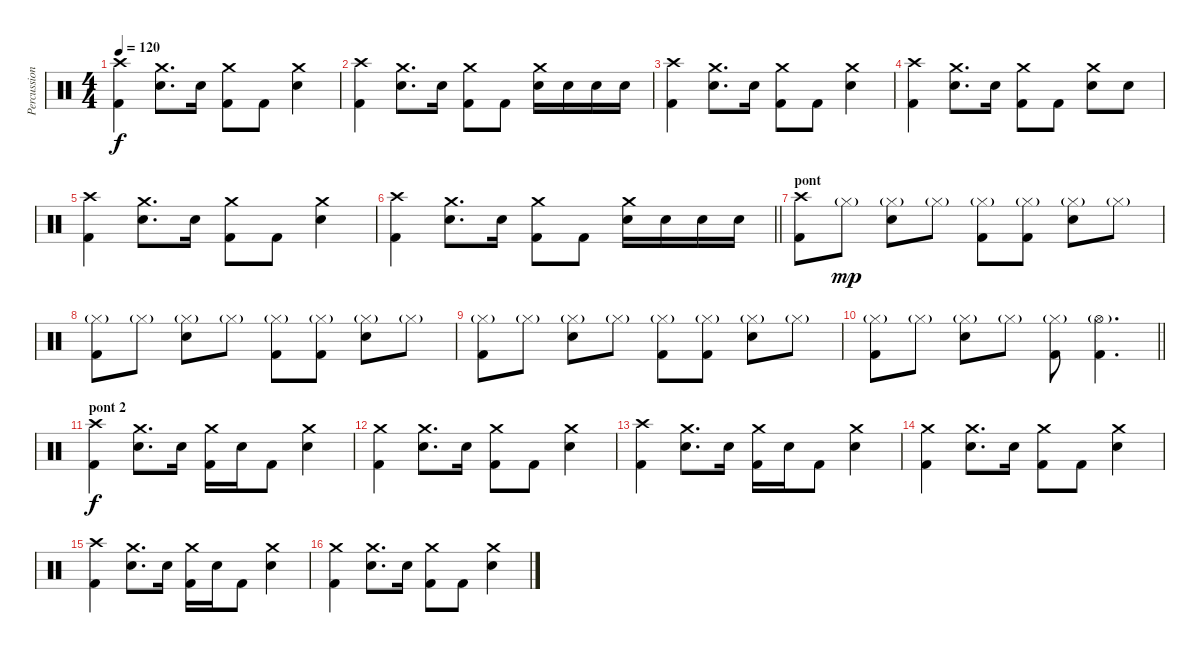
\track ("Percussions" "Percussion") {instrument percussion}
\staff {score}
\articulation defaults
\ts (4 4)
\tempo 120
\clef neutral
\ks c
("Crash high (hit)" "Kick (hit) 2").4{dy f} ("Crash medium (hit)" "Snare (hit) 2").8{d} "Snare (hit) 2".16 ("Crash medium (hit)" "Kick (hit) 2").8 "Kick (hit) 2".8 ("Crash medium (hit)" "Snare (hit) 2").4 |
("Crash high (hit)" "Kick (hit) 2").4 ("Crash medium (hit)" "Snare (hit) 2").8{d} "Snare (hit) 2".16 ("Crash medium (hit)" "Kick (hit) 2").8 "Kick (hit) 2".8 ("Crash medium (hit)" "Snare (hit) 2").16 "Snare (hit) 2".16 "Snare (hit) 2".16 "Snare (hit) 2".16 |
("Crash high (hit)" "Kick (hit) 2").4 ("Crash medium (hit)" "Snare (hit) 2").8{d} "Snare (hit) 2".16 ("Crash medium (hit)" "Kick (hit) 2").8 "Kick (hit) 2".8 ("Crash medium (hit)" "Snare (hit) 2").4 |
("Crash high (hit)" "Kick (hit) 2").4 ("Crash medium (hit)" "Snare (hit) 2").8{d} "Snare (hit) 2".16 ("Crash medium (hit)" "Kick (hit) 2").8 "Kick (hit) 2".8 ("Crash medium (hit)" "Snare (hit) 2").8 "Snare (hit) 2".8 |
("Crash high (hit)" "Kick (hit) 2").4 ("Crash medium (hit)" "Snare (hit) 2").8{d} "Snare (hit) 2".16 ("Crash medium (hit)" "Kick (hit) 2").8 "Kick (hit) 2".8 ("Crash medium (hit)" "Snare (hit) 2").4 |
\barLineRight lightlight
("Crash high (hit)" "Kick (hit) 2").4 ("Crash medium (hit)" "Snare (hit) 2").8{d} "Snare (hit) 2".16 ("Crash medium (hit)" "Kick (hit) 2").8 "Kick (hit) 2".8 ("Crash medium (hit)" "Snare (hit) 2").16 "Snare (hit) 2".16 "Snare (hit) 2".16 "Snare (hit) 2".16 |
\section ("" "pont")
("Crash high (hit)" "Kick (hit) 2").8 "Hi-Hat (closed)"{g}.8{dy mp} ("Hi-Hat (closed)"{g} "Snare (hit) 2").8 "Hi-Hat (closed)"{g}.8 ("Hi-Hat (closed)"{g} "Kick (hit) 2").8 ("Hi-Hat (closed)"{g} "Kick (hit) 2").8 ("Hi-Hat (closed)"{g} "Snare (hit) 2").8 "Hi-Hat (closed)"{g}.8 |
("Hi-Hat (closed)"{g} "Kick (hit) 2").8 "Hi-Hat (closed)"{g}.8 ("Hi-Hat (closed)"{g} "Snare (hit) 2").8 "Hi-Hat (closed)"{g}.8 ("Hi-Hat (closed)"{g} "Kick (hit) 2").8 ("Hi-Hat (closed)"{g} "Kick (hit) 2").8 ("Hi-Hat (closed)"{g} "Snare (hit) 2").8 "Hi-Hat (closed)"{g}.8 |
("Hi-Hat (closed)"{g} "Kick (hit) 2").8 "Hi-Hat (closed)"{g}.8 ("Hi-Hat (closed)"{g} "Snare (hit) 2").8 "Hi-Hat (closed)"{g}.8 ("Hi-Hat (closed)"{g} "Kick (hit) 2").8 ("Hi-Hat (closed)"{g} "Kick (hit) 2").8 ("Hi-Hat (closed)"{g} "Snare (hit) 2").8 "Hi-Hat (closed)"{g}.8 |
\barLineRight lightlight
("Hi-Hat (closed)"{g} "Kick (hit) 2").8 "Hi-Hat (closed)"{g}.8 ("Hi-Hat (closed)"{g} "Snare (hit) 2").8 "Hi-Hat (closed)"{g}.8 ("Hi-Hat (closed)"{g} "Kick (hit) 2").8 ("Hi-Hat (open)"{g} "Kick (hit) 2").4{d} |
\section ("" "pont 2")
("Crash high (hit)" "Kick (hit) 2").4{dy f} ("Crash medium (hit)" "Snare (hit) 2").8{d} "Snare (hit) 2".16 ("Crash medium (hit)" "Kick (hit) 2").16 "Snare (hit) 2".16 "Kick (hit) 2".8 ("Crash medium (hit)" "Snare (hit) 2").4 |
("Crash medium (hit)" "Kick (hit) 2").4 ("Crash medium (hit)" "Snare (hit) 2").8{d} "Snare (hit) 2".16 ("Crash medium (hit)" "Kick (hit) 2").8 "Kick (hit) 2".8 ("Crash medium (hit)" "Snare (hit) 2").4 |
("Crash high (hit)" "Kick (hit) 2").4 ("Crash medium (hit)" "Snare (hit) 2").8{d} "Snare (hit) 2".16 ("Crash medium (hit)" "Kick (hit) 2").16 "Snare (hit) 2".16 "Kick (hit) 2".8 ("Crash medium (hit)" "Snare (hit) 2").4 |
("Crash medium (hit)" "Kick (hit) 2").4 ("Crash medium (hit)" "Snare (hit) 2").8{d} "Snare (hit) 2".16 ("Crash medium (hit)" "Kick (hit) 2").8 "Kick (hit) 2".8 ("Crash medium (hit)" "Snare (hit) 2").4 |
("Crash high (hit)" "Kick (hit) 2").4 ("Crash medium (hit)" "Snare (hit) 2").8{d} "Snare (hit) 2".16 ("Crash medium (hit)" "Kick (hit) 2").16 "Snare (hit) 2".16 "Kick (hit) 2".8 ("Crash medium (hit)" "Snare (hit) 2").4 |
("Crash medium (hit)" "Kick (hit) 2").4 ("Crash medium (hit)" "Snare (hit) 2").8{d} "Snare (hit) 2".16 ("Crash medium (hit)" "Kick (hit) 2").8 "Kick (hit) 2".8 ("Crash medium (hit)" "Snare (hit) 2").4
